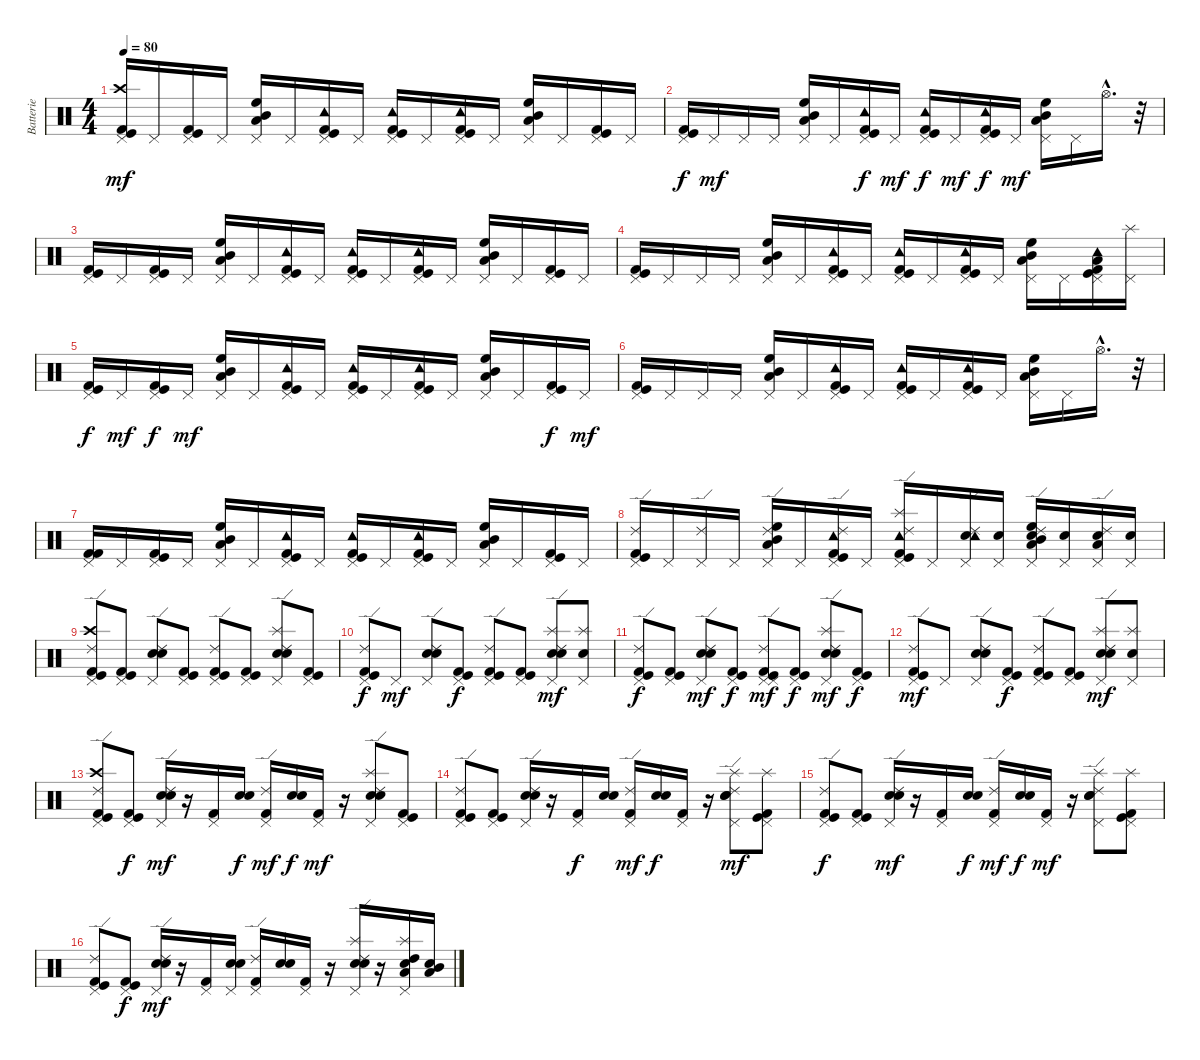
\track ("Batterie" "Batterie") {instrument percussion}
\staff {score}
\articulation defaults
\ts (4 4)
\tempo 80
\clef neutral
\ks c
("Pedal Hi-Hat (hit)" "Crash high (hit)" "Kick (hit)" "Kick (hit) 2").16{dy mf} "Pedal Hi-Hat (hit)".16 ("Pedal Hi-Hat (hit)" "Kick (hit)" "Kick (hit) 2").16 "Pedal Hi-Hat (hit)".16 ("Pedal Hi-Hat (hit)" "High Floor Tom (hit)" "Mid Tom (hit)" "Low Tom (hit)").16 "Pedal Hi-Hat (hit)".16 ("Pedal Hi-Hat (hit)" "Tambourine (hit)" "Kick (hit)" "Kick (hit) 2").16 "Pedal Hi-Hat (hit)".16 ("Pedal Hi-Hat (hit)" "Tambourine (hit)" "Kick (hit)" "Kick (hit) 2").16 "Pedal Hi-Hat (hit)".16 ("Pedal Hi-Hat (hit)" "Tambourine (hit)" "Kick (hit)" "Kick (hit) 2").16 "Pedal Hi-Hat (hit)".16 ("Pedal Hi-Hat (hit)" "Mid Tom (hit)" "High Floor Tom (hit)" "Low Tom (hit)").16 "Pedal Hi-Hat (hit)".16 ("Pedal Hi-Hat (hit)" "Kick (hit)" "Kick (hit) 2").16 "Pedal Hi-Hat (hit)".16 |
("Pedal Hi-Hat (hit)" "Kick (hit)" "Kick (hit) 2").16{dy f} "Pedal Hi-Hat (hit)".16{dy mf} "Pedal Hi-Hat (hit)".16 "Pedal Hi-Hat (hit)".16 ("Pedal Hi-Hat (hit)" "High Floor Tom (hit)" "Mid Tom (hit)" "Low Tom (hit)").16 "Pedal Hi-Hat (hit)".16 ("Pedal Hi-Hat (hit)" "Tambourine (hit)" "Kick (hit)" "Kick (hit) 2").16{dy f} "Pedal Hi-Hat (hit)".16{dy mf} ("Pedal Hi-Hat (hit)" "Tambourine (hit)" "Kick (hit)" "Kick (hit) 2").16{dy f} "Pedal Hi-Hat (hit)".16{dy mf} ("Pedal Hi-Hat (hit)" "Tambourine (hit)" "Kick (hit)" "Kick (hit) 2").16{dy f} "Pedal Hi-Hat (hit)".16{dy mf} ("Pedal Hi-Hat (hit)" "High Floor Tom (hit)" "Mid Tom (hit)" "Low Tom (hit)").16 "Pedal Hi-Hat (hit)".16 "Hi-Hat (open)"{hac}.16{d} r.32 |
("Pedal Hi-Hat (hit)" "Kick (hit)" "Kick (hit) 2").16 "Pedal Hi-Hat (hit)".16 ("Pedal Hi-Hat (hit)" "Kick (hit)" "Kick (hit) 2").16 "Pedal Hi-Hat (hit)".16 ("Pedal Hi-Hat (hit)" "High Floor Tom (hit)" "Mid Tom (hit)" "Low Tom (hit)").16 "Pedal Hi-Hat (hit)".16 ("Pedal Hi-Hat (hit)" "Tambourine (hit)" "Kick (hit)" "Kick (hit) 2").16 "Pedal Hi-Hat (hit)".16 ("Pedal Hi-Hat (hit)" "Tambourine (hit)" "Kick (hit)" "Kick (hit) 2").16 "Pedal Hi-Hat (hit)".16 ("Pedal Hi-Hat (hit)" "Tambourine (hit)" "Kick (hit)" "Kick (hit) 2").16 "Pedal Hi-Hat (hit)".16 ("Pedal Hi-Hat (hit)" "Mid Tom (hit)" "High Floor Tom (hit)" "Low Tom (hit)").16 "Pedal Hi-Hat (hit)".16 ("Pedal Hi-Hat (hit)" "Kick (hit)" "Kick (hit) 2").16 "Pedal Hi-Hat (hit)".16 |
("Pedal Hi-Hat (hit)" "Kick (hit)" "Kick (hit) 2").16 "Pedal Hi-Hat (hit)".16 "Pedal Hi-Hat (hit)".16 "Pedal Hi-Hat (hit)".16 ("Pedal Hi-Hat (hit)" "High Floor Tom (hit)" "Mid Tom (hit)" "Low Tom (hit)").16 "Pedal Hi-Hat (hit)".16 ("Pedal Hi-Hat (hit)" "Tambourine (hit)" "Kick (hit)" "Kick (hit) 2").16 "Pedal Hi-Hat (hit)".16 ("Pedal Hi-Hat (hit)" "Tambourine (hit)" "Kick (hit)" "Kick (hit) 2").16 "Pedal Hi-Hat (hit)".16 ("Pedal Hi-Hat (hit)" "Tambourine (hit)" "Kick (hit)" "Kick (hit) 2").16 "Pedal Hi-Hat (hit)".16 ("Pedal Hi-Hat (hit)" "High Floor Tom (hit)" "Mid Tom (hit)" "Low Tom (hit)").16 "Pedal Hi-Hat (hit)".16 ("Pedal Hi-Hat (hit)" "Tambourine (hit)" "Low Tom (hit)" "Kick (hit)" "Kick (hit) 2").16 ("Pedal Hi-Hat (hit)" "Splash (hit)").16 |
("Pedal Hi-Hat (hit)" "Kick (hit)" "Kick (hit) 2").16{dy f} "Pedal Hi-Hat (hit)".16{dy mf} ("Pedal Hi-Hat (hit)" "Kick (hit)" "Kick (hit) 2").16{dy f} "Pedal Hi-Hat (hit)".16{dy mf} ("Pedal Hi-Hat (hit)" "High Floor Tom (hit)" "Mid Tom (hit)" "Low Tom (hit)").16 "Pedal Hi-Hat (hit)".16 ("Pedal Hi-Hat (hit)" "Tambourine (hit)" "Kick (hit)" "Kick (hit) 2").16 "Pedal Hi-Hat (hit)".16 ("Pedal Hi-Hat (hit)" "Tambourine (hit)" "Kick (hit)" "Kick (hit) 2").16 "Pedal Hi-Hat (hit)".16 ("Pedal Hi-Hat (hit)" "Tambourine (hit)" "Kick (hit)" "Kick (hit) 2").16 "Pedal Hi-Hat (hit)".16 ("Pedal Hi-Hat (hit)" "High Floor Tom (hit)" "Mid Tom (hit)" "Low Tom (hit)").16 "Pedal Hi-Hat (hit)".16 ("Pedal Hi-Hat (hit)" "Kick (hit)" "Kick (hit) 2").16{dy f} "Pedal Hi-Hat (hit)".16{dy mf} |
("Pedal Hi-Hat (hit)" "Kick (hit)" "Kick (hit) 2").16 "Pedal Hi-Hat (hit)".16 "Pedal Hi-Hat (hit)".16 "Pedal Hi-Hat (hit)".16 ("Pedal Hi-Hat (hit)" "High Floor Tom (hit)" "Mid Tom (hit)" "Low Tom (hit)").16 "Pedal Hi-Hat (hit)".16 ("Pedal Hi-Hat (hit)" "Tambourine (hit)" "Kick (hit)" "Kick (hit) 2").16 "Pedal Hi-Hat (hit)".16 ("Pedal Hi-Hat (hit)" "Tambourine (hit)" "Kick (hit)" "Kick (hit) 2").16 "Pedal Hi-Hat (hit)".16 ("Pedal Hi-Hat (hit)" "Tambourine (hit)" "Kick (hit)" "Kick (hit) 2").16 "Pedal Hi-Hat (hit)".16 ("Pedal Hi-Hat (hit)" "High Floor Tom (hit)" "Mid Tom (hit)" "Low Tom (hit)").16 "Pedal Hi-Hat (hit)".16 "Hi-Hat (open)"{hac}.16{d} r.32 |
("Pedal Hi-Hat (hit)" "Kick (hit) 2" "Kick (hit) 2").16 "Pedal Hi-Hat (hit)".16 ("Pedal Hi-Hat (hit)" "Kick (hit)" "Kick (hit) 2").16 "Pedal Hi-Hat (hit)".16 ("Pedal Hi-Hat (hit)" "High Floor Tom (hit)" "Mid Tom (hit)" "Low Tom (hit)").16 "Pedal Hi-Hat (hit)".16 ("Pedal Hi-Hat (hit)" "Tambourine (hit)" "Kick (hit)" "Kick (hit) 2").16 "Pedal Hi-Hat (hit)".16 ("Pedal Hi-Hat (hit)" "Tambourine (hit)" "Kick (hit)" "Kick (hit) 2").16 "Pedal Hi-Hat (hit)".16 ("Pedal Hi-Hat (hit)" "Tambourine (hit)" "Kick (hit)" "Kick (hit) 2").16 "Pedal Hi-Hat (hit)".16 ("Pedal Hi-Hat (hit)" "High Floor Tom (hit)" "Mid Tom (hit)" "Low Tom (hit)").16 "Pedal Hi-Hat (hit)".16 ("Pedal Hi-Hat (hit)" "Kick (hit)" "Kick (hit) 2").16 "Pedal Hi-Hat (hit)".16 |
("Pedal Hi-Hat (hit)" "Ride (edge) 2" "Kick (hit)" "Kick (hit) 2").16 "Pedal Hi-Hat (hit)".16 ("Pedal Hi-Hat (hit)" "Ride (edge) 2").16 "Pedal Hi-Hat (hit)".16 ("Pedal Hi-Hat (hit)" "Ride (edge) 2" "High Floor Tom (hit)" "Mid Tom (hit)" "Low Tom (hit)").16 "Pedal Hi-Hat (hit)".16 ("Pedal Hi-Hat (hit)" "Ride (edge) 2" "Tambourine (hit)" "Kick (hit)" "Kick (hit) 2").16 "Pedal Hi-Hat (hit)".16 ("Pedal Hi-Hat (hit)" "Splash (hit)" "Tambourine (hit)" "Ride (edge) 2" "Kick (hit)" "Kick (hit) 2").16 "Pedal Hi-Hat (hit)".16 ("Pedal Hi-Hat (hit)" "Ride (edge) 2" "Snare (hit) 2" "Tambourine (hit)").16 ("Pedal Hi-Hat (hit)" "Snare (hit) 2").16 ("Ride (edge) 2" "Snare (hit) 2" "Low Tom (hit)" "High Floor Tom (hit)" "Mid Tom (hit)" "Pedal Hi-Hat (hit)").16 ("Snare (hit) 2" "Pedal Hi-Hat (hit)").16 ("Ride (edge) 2" "Snare (hit) 2" "Low Tom (hit)" "Pedal Hi-Hat (hit)").16 ("Snare (hit) 2" "Pedal Hi-Hat (hit)").16 |
("Pedal Hi-Hat (hit)" "Ride (edge) 2" "Crash high (hit)" "Kick (hit)" "Kick (hit) 2").8 ("Pedal Hi-Hat (hit)" "Kick (hit)" "Kick (hit) 2").8 ("Pedal Hi-Hat (hit)" "Ride (edge) 2" "Snare (hit) 2" "Electric Snare (hit)").8 ("Pedal Hi-Hat (hit)" "Kick (hit)" "Kick (hit) 2").8 ("Pedal Hi-Hat (hit)" "Ride (edge) 2" "Kick (hit)" "Kick (hit) 2").8 ("Pedal Hi-Hat (hit)" "Kick (hit)" "Kick (hit) 2").8 ("Pedal Hi-Hat (hit)" "Ride (edge) 2" "Snare (hit) 2" "Electric Snare (hit)" "Splash (hit)").8 ("Pedal Hi-Hat (hit)" "Kick (hit)" "Kick (hit) 2").8 |
("Pedal Hi-Hat (hit)" "Ride (edge) 2" "Kick (hit)" "Kick (hit) 2").8{dy f} "Pedal Hi-Hat (hit)".8{dy mf} ("Pedal Hi-Hat (hit)" "Ride (edge) 2" "Snare (hit) 2" "Electric Snare (hit)").8 ("Pedal Hi-Hat (hit)" "Kick (hit)" "Kick (hit) 2").8{dy f} ("Pedal Hi-Hat (hit)" "Ride (edge) 2" "Kick (hit)" "Kick (hit) 2").8 ("Pedal Hi-Hat (hit)" "Kick (hit)" "Kick (hit) 2").8 ("Pedal Hi-Hat (hit)" "Ride (edge) 2" "Snare (hit) 2" "Electric Snare (hit)" "Splash (hit)").8{dy mf} ("Pedal Hi-Hat (hit)" "Snare (hit) 2" "Splash (hit)").8 |
("Pedal Hi-Hat (hit)" "Ride (edge) 2" "Kick (hit)" "Kick (hit) 2").8{dy f} ("Pedal Hi-Hat (hit)" "Kick (hit)" "Kick (hit) 2").8 ("Pedal Hi-Hat (hit)" "Ride (edge) 2" "Snare (hit) 2" "Electric Snare (hit)").8{dy mf} ("Pedal Hi-Hat (hit)" "Kick (hit)" "Kick (hit) 2").8{dy f} ("Pedal Hi-Hat (hit)" "Ride (edge) 2" "Pedal Hi-Hat (hit)" "Kick (hit)" "Kick (hit) 2").8{dy mf} ("Pedal Hi-Hat (hit)" "Kick (hit)" "Kick (hit) 2").8{dy f} ("Splash (hit)" "Electric Snare (hit)" "Snare (hit) 2" "Ride (edge) 2" "Pedal Hi-Hat (hit)").8{dy mf} ("Pedal Hi-Hat (hit)" "Kick (hit)" "Kick (hit) 2").8{dy f} |
("Pedal Hi-Hat (hit)" "Ride (edge) 2" "Kick (hit)" "Kick (hit) 2").8{dy mf} "Pedal Hi-Hat (hit)".8 ("Pedal Hi-Hat (hit)" "Ride (edge) 2" "Snare (hit) 2" "Electric Snare (hit)").8 ("Pedal Hi-Hat (hit)" "Kick (hit)" "Kick (hit) 2").8{dy f} ("Pedal Hi-Hat (hit)" "Ride (edge) 2" "Kick (hit)" "Kick (hit) 2").8 ("Pedal Hi-Hat (hit)" "Kick (hit)" "Kick (hit) 2").8 ("Pedal Hi-Hat (hit)" "Ride (edge) 2" "Snare (hit) 2" "Electric Snare (hit)" "Splash (hit)").8{dy mf} ("Pedal Hi-Hat (hit)" "Splash (hit)" "Snare (hit) 2").8 |
("Pedal Hi-Hat (hit)" "Ride (edge) 2" "Crash high (hit)" "Kick (hit)" "Kick (hit) 2").8 ("Pedal Hi-Hat (hit)" "Kick (hit)" "Kick (hit) 2").8{dy f} ("Pedal Hi-Hat (hit)" "Ride (edge) 2" "Snare (hit) 2" "Electric Snare (hit)").16{dy mf} r.16 ("Pedal Hi-Hat (hit)" "Kick (hit) 2").16 ("Snare (hit) 2" "Electric Snare (hit)").16{dy f} ("Pedal Hi-Hat (hit)" "Ride (edge) 2" "Kick (hit) 2").16{dy mf} ("Snare (hit) 2" "Electric Snare (hit)").16{dy f} ("Pedal Hi-Hat (hit)" "Kick (hit) 2").16{dy mf} r.16 ("Pedal Hi-Hat (hit)" "Ride (edge) 2" "Snare (hit) 2" "Electric Snare (hit)" "Splash (hit)").8 ("Pedal Hi-Hat (hit)" "Kick (hit)" "Kick (hit) 2").8 |
("Pedal Hi-Hat (hit)" "Ride (edge) 2" "Kick (hit)" "Kick (hit) 2").8 ("Pedal Hi-Hat (hit)" "Kick (hit)" "Kick (hit) 2").8 ("Pedal Hi-Hat (hit)" "Ride (edge) 2" "Snare (hit) 2" "Electric Snare (hit)").16 r.16 ("Pedal Hi-Hat (hit)" "Kick (hit) 2").16{dy f} ("Snare (hit) 2" "Electric Snare (hit)").16 ("Pedal Hi-Hat (hit)" "Ride (edge) 2" "Kick (hit) 2").16{dy mf} ("Snare (hit) 2" "Electric Snare (hit)").16{dy f} ("Pedal Hi-Hat (hit)" "Kick (hit) 2").16 r.16 ("Pedal Hi-Hat (hit)" "Ride (edge) 2" "Snare (hit) 2" "Electric Snare (hit)" "Splash (hit)").8{dy mf} ("Splash (hit)" "Pedal Hi-Hat (hit)" "Kick (hit)" "Kick (hit) 2").8 |
("Pedal Hi-Hat (hit)" "Ride (edge) 2" "Kick (hit)" "Kick (hit) 2").8{dy f} ("Pedal Hi-Hat (hit)" "Kick (hit)" "Kick (hit) 2").8 ("Pedal Hi-Hat (hit)" "Ride (edge) 2" "Snare (hit) 2" "Electric Snare (hit)").16{dy mf} r.16 ("Pedal Hi-Hat (hit)" "Kick (hit) 2").16 ("Snare (hit) 2" "Electric Snare (hit)").16{dy f} ("Pedal Hi-Hat (hit)" "Ride (edge) 2" "Kick (hit) 2").16{dy mf} ("Snare (hit) 2" "Electric Snare (hit)").16{dy f} ("Pedal Hi-Hat (hit)" "Kick (hit) 2").16{dy mf} r.16 ("Pedal Hi-Hat (hit)" "Ride (edge) 2" "Snare (hit) 2" "Splash (hit)" "Electric Snare (hit)").8 ("Pedal Hi-Hat (hit)" "Splash (hit)" "Kick (hit)" "Kick (hit) 2").8 |
("Pedal Hi-Hat (hit)" "Ride (edge) 2" "Kick (hit)" "Kick (hit) 2").8 ("Pedal Hi-Hat (hit)" "Kick (hit)" "Kick (hit) 2").8{dy f} ("Pedal Hi-Hat (hit)" "Ride (edge) 2" "Snare (hit) 2" "Electric Snare (hit)").16{dy mf} r.16 ("Pedal Hi-Hat (hit)" "Kick (hit) 2").16 ("Pedal Hi-Hat (hit)" "Electric Snare (hit)" "Snare (hit) 2").16 ("Pedal Hi-Hat (hit)" "Ride (edge) 2" "Kick (hit) 2").16 ("Electric Snare (hit)" "Snare (hit) 2").16 ("Pedal Hi-Hat (hit)" "Kick (hit) 2").16 r.16 ("Pedal Hi-Hat (hit)" "Ride (edge) 2" "Snare (hit) 2" "Electric Snare (hit)" "Splash (hit)").16 r.16 ("Pedal Hi-Hat (hit)" "High Tom (hit)" "Snare (hit) 2" "Low Tom (hit)" "Splash (hit)").16 ("Mid Tom (hit)" "Snare (hit) 2" "Low Tom (hit)").16
